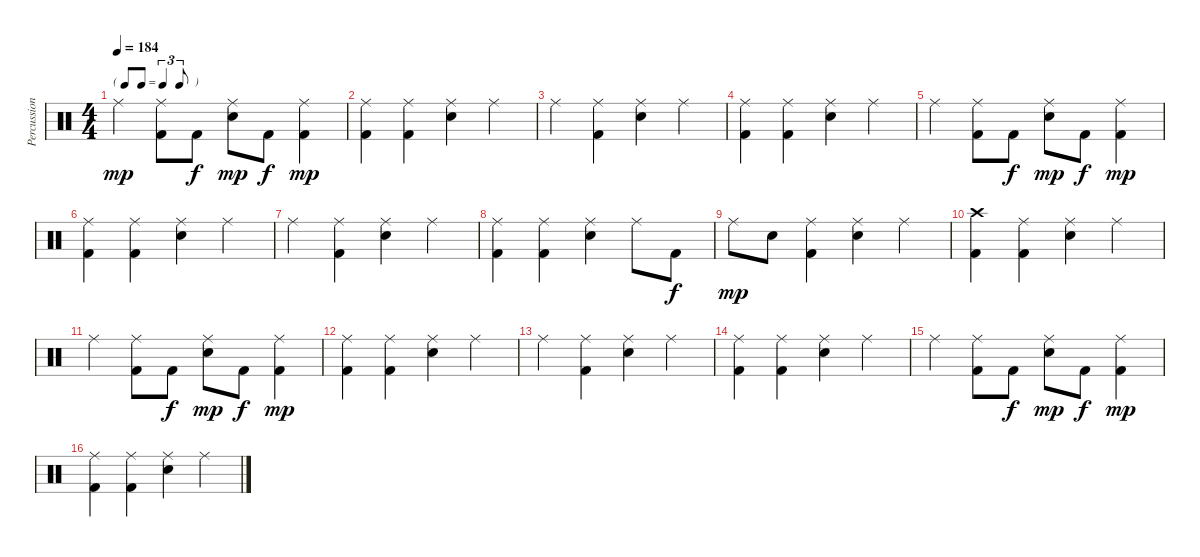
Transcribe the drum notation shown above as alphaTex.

\track ("Percussion" "Percussion") {instrument percussion}
\staff {score}
\articulation defaults
\ts (4 4)
\tf triplet8th
\tempo 184
\clef neutral
\ks c "Ride (middle)".4{dy mp}
("Ride (middle)" "Kick (hit) 2").8 "Kick (hit) 2".8{dy f} ("Ride (middle)" "Electric Snare (hit)").8{dy mp} "Kick (hit) 2".8{dy f} ("Ride (middle)" "Kick (hit) 2").4{dy mp} |
("Ride (middle)" "Kick (hit) 2").4 ("Ride (middle)" "Kick (hit) 2").4 ("Ride (middle)" "Electric Snare (hit)").4 "Ride (middle)".4 |
"Ride (middle)".4 ("Ride (middle)" "Kick (hit) 2").4 ("Ride (middle)" "Electric Snare (hit)").4 "Ride (middle)".4 |
("Ride (middle)" "Kick (hit) 2").4 ("Ride (middle)" "Kick (hit) 2").4 ("Ride (middle)" "Electric Snare (hit)").4 "Ride (middle)".4 |
"Ride (middle)".4 ("Ride (middle)" "Kick (hit) 2").8 "Kick (hit) 2".8{dy f} ("Ride (middle)" "Electric Snare (hit)").8{dy mp} "Kick (hit) 2".8{dy f} ("Ride (middle)" "Kick (hit) 2").4{dy mp} |
("Ride (middle)" "Kick (hit) 2").4 ("Ride (middle)" "Kick (hit) 2").4 ("Ride (middle)" "Electric Snare (hit)").4 "Ride (middle)".4 |
"Ride (middle)".4 ("Ride (middle)" "Kick (hit) 2").4 ("Ride (middle)" "Electric Snare (hit)").4 "Ride (middle)".4 |
("Ride (middle)" "Kick (hit) 2").4 ("Ride (middle)" "Kick (hit) 2").4 ("Ride (middle)" "Electric Snare (hit)").4 "Ride (middle)".8 "Kick (hit) 2".8{dy f} |
"Ride (middle)".8{dy mp} "Electric Snare (hit)".8 ("Ride (middle)" "Kick (hit) 2").4 ("Ride (middle)" "Electric Snare (hit)").4 "Ride (middle)".4 |
("Crash high (hit)" "Kick (hit) 2").4 ("Ride (middle)" "Kick (hit) 2").4 ("Ride (middle)" "Electric Snare (hit)").4 "Ride (middle)".4 |
"Ride (middle)".4 ("Ride (middle)" "Kick (hit) 2").8 "Kick (hit) 2".8{dy f} ("Ride (middle)" "Electric Snare (hit)").8{dy mp} "Kick (hit) 2".8{dy f} ("Ride (middle)" "Kick (hit) 2").4{dy mp} |
("Ride (middle)" "Kick (hit) 2").4 ("Ride (middle)" "Kick (hit) 2").4 ("Ride (middle)" "Electric Snare (hit)").4 "Ride (middle)".4 |
"Ride (middle)".4 ("Ride (middle)" "Kick (hit) 2").4 ("Ride (middle)" "Electric Snare (hit)").4 "Ride (middle)".4 |
("Ride (middle)" "Kick (hit) 2").4 ("Ride (middle)" "Kick (hit) 2").4 ("Ride (middle)" "Electric Snare (hit)").4 "Ride (middle)".4 |
"Ride (middle)".4 ("Ride (middle)" "Kick (hit) 2").8 "Kick (hit) 2".8{dy f} ("Ride (middle)" "Electric Snare (hit)").8{dy mp} "Kick (hit) 2".8{dy f} ("Ride (middle)" "Kick (hit) 2").4{dy mp} |
("Ride (middle)" "Kick (hit) 2").4 ("Ride (middle)" "Kick (hit) 2").4 ("Ride (middle)" "Electric Snare (hit)").4 "Ride (middle)".4
